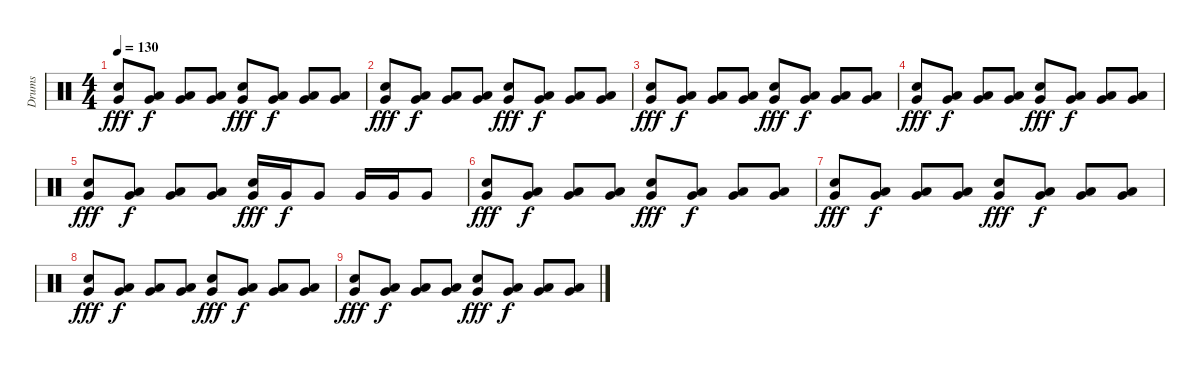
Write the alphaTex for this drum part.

\track ("Drums" "Drums") {instrument percussion}
\staff {score}
\articulation defaults
\ts (4 4)
\tempo 130
\clef neutral
\ks c
("Snare (hit) 2" "Very Low Tom (hit)").8{dy fff} ("Low Tom (hit)" "Very Low Tom (hit)").8{dy f} ("Low Tom (hit)" "Very Low Tom (hit)").8 ("Low Tom (hit)" "Very Low Tom (hit)").8 ("Snare (hit) 2" "Very Low Tom (hit)").8{dy fff} ("Low Tom (hit)" "Very Low Tom (hit)").8{dy f} ("Low Tom (hit)" "Very Low Tom (hit)").8 ("Low Tom (hit)" "Very Low Tom (hit)").8 |
("Snare (hit) 2" "Very Low Tom (hit)").8{dy fff} ("Low Tom (hit)" "Very Low Tom (hit)").8{dy f} ("Low Tom (hit)" "Very Low Tom (hit)").8 ("Low Tom (hit)" "Very Low Tom (hit)").8 ("Snare (hit) 2" "Very Low Tom (hit)").8{dy fff} ("Low Tom (hit)" "Very Low Tom (hit)").8{dy f} ("Low Tom (hit)" "Very Low Tom (hit)").8 ("Low Tom (hit)" "Very Low Tom (hit)").8 |
("Snare (hit) 2" "Very Low Tom (hit)").8{dy fff} ("Low Tom (hit)" "Very Low Tom (hit)").8{dy f} ("Low Tom (hit)" "Very Low Tom (hit)").8 ("Low Tom (hit)" "Very Low Tom (hit)").8 ("Snare (hit) 2" "Very Low Tom (hit)").8{dy fff} ("Low Tom (hit)" "Very Low Tom (hit)").8{dy f} ("Low Tom (hit)" "Very Low Tom (hit)").8 ("Low Tom (hit)" "Very Low Tom (hit)").8 |
("Snare (hit) 2" "Very Low Tom (hit)").8{dy fff} ("Low Tom (hit)" "Very Low Tom (hit)").8{dy f} ("Low Tom (hit)" "Very Low Tom (hit)").8 ("Low Tom (hit)" "Very Low Tom (hit)").8 ("Snare (hit) 2" "Very Low Tom (hit)").8{dy fff} ("Low Tom (hit)" "Very Low Tom (hit)").8{dy f} ("Low Tom (hit)" "Very Low Tom (hit)").8 ("Low Tom (hit)" "Very Low Tom (hit)").8 |
("Snare (hit) 2" "Very Low Tom (hit)").8{dy fff} ("Low Tom (hit)" "Very Low Tom (hit)").8{dy f} ("Low Tom (hit)" "Very Low Tom (hit)").8 ("Low Tom (hit)" "Very Low Tom (hit)").8 ("Snare (hit) 2" "Very Low Tom (hit)").16{dy fff} "Very Low Tom (hit)".16{dy f} "Very Low Tom (hit)".8 "Very Low Tom (hit)".16 "Very Low Tom (hit)".16 "Very Low Tom (hit)".8 |
("Snare (hit) 2" "Very Low Tom (hit)").8{dy fff volume 0} ("Low Tom (hit)" "Very Low Tom (hit)").8{dy f} ("Low Tom (hit)" "Very Low Tom (hit)").8 ("Low Tom (hit)" "Very Low Tom (hit)").8 ("Snare (hit) 2" "Very Low Tom (hit)").8{dy fff} ("Low Tom (hit)" "Very Low Tom (hit)").8{dy f} ("Low Tom (hit)" "Very Low Tom (hit)").8 ("Low Tom (hit)" "Very Low Tom (hit)").8 |
("Snare (hit) 2" "Very Low Tom (hit)").8{dy fff} ("Low Tom (hit)" "Very Low Tom (hit)").8{dy f} ("Low Tom (hit)" "Very Low Tom (hit)").8 ("Low Tom (hit)" "Very Low Tom (hit)").8 ("Snare (hit) 2" "Very Low Tom (hit)").8{dy fff} ("Low Tom (hit)" "Very Low Tom (hit)").8{dy f} ("Low Tom (hit)" "Very Low Tom (hit)").8 ("Low Tom (hit)" "Very Low Tom (hit)").8 |
("Snare (hit) 2" "Very Low Tom (hit)").8{dy fff} ("Low Tom (hit)" "Very Low Tom (hit)").8{dy f} ("Low Tom (hit)" "Very Low Tom (hit)").8 ("Low Tom (hit)" "Very Low Tom (hit)").8 ("Snare (hit) 2" "Very Low Tom (hit)").8{dy fff} ("Low Tom (hit)" "Very Low Tom (hit)").8{dy f} ("Low Tom (hit)" "Very Low Tom (hit)").8 ("Low Tom (hit)" "Very Low Tom (hit)").8 |
("Snare (hit) 2" "Very Low Tom (hit)").8{dy fff} ("Low Tom (hit)" "Very Low Tom (hit)").8{dy f} ("Low Tom (hit)" "Very Low Tom (hit)").8 ("Low Tom (hit)" "Very Low Tom (hit)").8 ("Snare (hit) 2" "Very Low Tom (hit)").8{dy fff} ("Low Tom (hit)" "Very Low Tom (hit)").8{dy f} ("Low Tom (hit)" "Very Low Tom (hit)").8 ("Low Tom (hit)" "Very Low Tom (hit)").8
